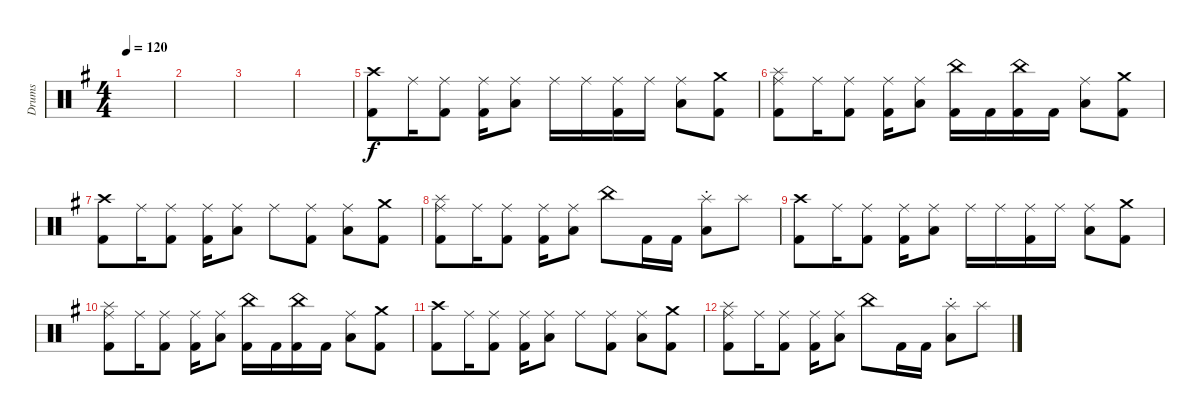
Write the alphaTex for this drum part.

\track ("Drums" "Drums") {instrument percussion}
\staff {score}
\articulation defaults
\ts (4 4)
\tempo 120
\clef neutral
\ks g
|
|
|
|
("Kick (hit) 2" "Crash high (hit)").8 "Ride (middle)".16 ("Kick (hit) 2" "Ride (middle)").8 ("Kick (hit) 2" "Ride (middle)").16 ("Low Floor Tom (hit)" "Ride (middle)").8 "Ride (middle)".16 "Ride (middle)".16 ("Kick (hit) 2" "Ride (middle)").16 "Ride (middle)".16 ("Low Floor Tom (hit)" "Ride (middle)").8 ("Kick (hit) 2" "Crash medium (hit)").8 |
("Kick (hit) 2" "Ride (middle)" "Splash (hit)").8 "Ride (middle)".16 ("Kick (hit) 2" "Ride (middle)").8 ("Kick (hit) 2" "Ride (middle)").16 ("Low Floor Tom (hit)" "Ride (middle)").8 ("Kick (hit) 2" "China (choke)").16 "Kick (hit) 2".16 ("Kick (hit) 2" "China (choke)").16 "Kick (hit) 2".16 ("Low Floor Tom (hit)" "Ride (middle)").8 ("Kick (hit) 2" "Crash medium (hit)").8 |
("Kick (hit) 2" "Crash high (hit)").8 "Ride (middle)".16 ("Kick (hit) 2" "Ride (middle)").8 ("Kick (hit) 2" "Ride (middle)").16 ("Low Floor Tom (hit)" "Ride (middle)").8 "Ride (middle)".8 ("Kick (hit) 2" "Ride (middle)").8 ("Low Floor Tom (hit)" "Ride (middle)").8 ("Kick (hit) 2" "Crash medium (hit)").8 |
("Kick (hit) 2" "Splash (hit)" "Ride (middle)").8 "Ride (middle)".16 ("Kick (hit) 2" "Ride (middle)").8 ("Kick (hit) 2" "Ride (middle)").16 ("Low Floor Tom (hit)" "Ride (middle)").8 "China (choke)".8 "Kick (hit) 2".16 "Kick (hit) 2".16 ("Low Floor Tom (hit)" "Splash (choke)").8 "Splash (hit)".8 |
("Kick (hit) 2" "Crash high (hit)").8 "Ride (middle)".16 ("Kick (hit) 2" "Ride (middle)").8 ("Kick (hit) 2" "Ride (middle)").16 ("Low Floor Tom (hit)" "Ride (middle)").8 "Ride (middle)".16 "Ride (middle)".16 ("Kick (hit) 2" "Ride (middle)").16 "Ride (middle)".16 ("Low Floor Tom (hit)" "Ride (middle)").8 ("Kick (hit) 2" "Crash medium (hit)").8 |
("Kick (hit) 2" "Ride (middle)" "Splash (hit)").8 "Ride (middle)".16 ("Kick (hit) 2" "Ride (middle)").8 ("Kick (hit) 2" "Ride (middle)").16 ("Low Floor Tom (hit)" "Ride (middle)").8 ("Kick (hit) 2" "China (choke)").16 "Kick (hit) 2".16 ("Kick (hit) 2" "China (choke)").16 "Kick (hit) 2".16 ("Low Floor Tom (hit)" "Ride (middle)").8 ("Kick (hit) 2" "Crash medium (hit)").8 |
("Kick (hit) 2" "Crash high (hit)").8 "Ride (middle)".16 ("Kick (hit) 2" "Ride (middle)").8 ("Kick (hit) 2" "Ride (middle)").16 ("Low Floor Tom (hit)" "Ride (middle)").8 "Ride (middle)".8 ("Kick (hit) 2" "Ride (middle)").8 ("Low Floor Tom (hit)" "Ride (middle)").8 ("Kick (hit) 2" "Crash medium (hit)").8 |
("Kick (hit) 2" "Splash (hit)" "Ride (middle)").8 "Ride (middle)".16 ("Kick (hit) 2" "Ride (middle)").8 ("Kick (hit) 2" "Ride (middle)").16 ("Low Floor Tom (hit)" "Ride (middle)").8 "China (choke)".8 "Kick (hit) 2".16 "Kick (hit) 2".16 ("Low Floor Tom (hit)" "Splash (choke)").8 "Splash (hit)".8
